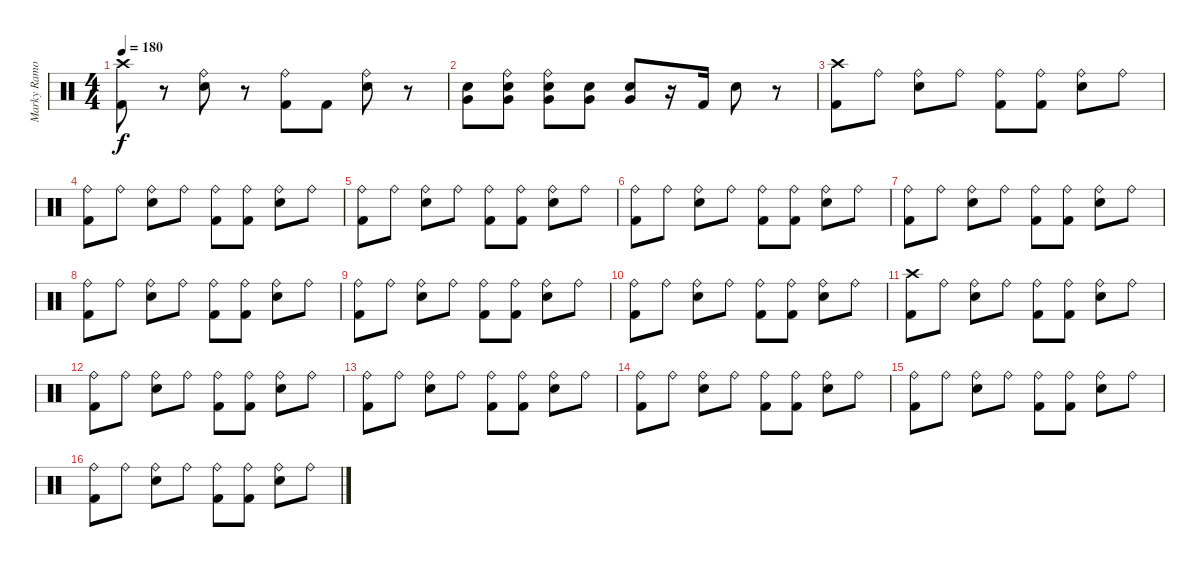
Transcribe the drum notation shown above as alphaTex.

\track ("Marky Ramone" "Marky Ramo") {instrument percussion}
\staff {score}
\articulation defaults
\ts (4 4)
\tempo 180
\clef neutral
\ks c
("Crash high (hit)" "Kick (hit) 2").8{dy f} r.8 ("Ride (bell)" "Electric Snare (hit)").8 r.8 ("Ride (bell)" "Kick (hit) 2").8 "Kick (hit) 2".8 ("Ride (bell)" "Electric Snare (hit)").8 r.8 |
("Snare (hit) 2" "Very Low Tom (hit)").8 ("Very Low Tom (hit)" "Snare (hit) 2" "Ride (bell)").8 ("Very Low Tom (hit)" "Ride (bell)" "Electric Snare (hit)").8 ("Very Low Tom (hit)" "Electric Snare (hit)").8 ("Very Low Tom (hit)" "Electric Snare (hit)").8 r.16 "Kick (hit) 2".16 "Electric Snare (hit)".8 r.8 |
("Kick (hit) 2" "Crash high (hit)").8 "Ride (bell)".8 ("Electric Snare (hit)" "Ride (bell)").8 "Ride (bell)".8 ("Kick (hit) 2" "Ride (bell)").8 ("Kick (hit) 2" "Ride (bell)").8 ("Electric Snare (hit)" "Ride (bell)").8 "Ride (bell)".8 |
("Ride (bell)" "Kick (hit) 2").8 "Ride (bell)".8 ("Electric Snare (hit)" "Ride (bell)").8 "Ride (bell)".8 ("Ride (bell)" "Kick (hit) 2").8 ("Ride (bell)" "Kick (hit) 2").8 ("Electric Snare (hit)" "Ride (bell)").8 "Ride (bell)".8 |
("Kick (hit) 2" "Ride (bell)").8 "Ride (bell)".8 ("Electric Snare (hit)" "Ride (bell)").8 "Ride (bell)".8 ("Kick (hit) 2" "Ride (bell)").8 ("Kick (hit) 2" "Ride (bell)").8 ("Electric Snare (hit)" "Ride (bell)").8 "Ride (bell)".8 |
("Ride (bell)" "Kick (hit) 2").8 "Ride (bell)".8 ("Electric Snare (hit)" "Ride (bell)").8 "Ride (bell)".8 ("Ride (bell)" "Kick (hit) 2").8 ("Ride (bell)" "Kick (hit) 2").8 ("Electric Snare (hit)" "Ride (bell)").8 "Ride (bell)".8 |
("Kick (hit) 2" "Ride (bell)").8 "Ride (bell)".8 ("Electric Snare (hit)" "Ride (bell)").8 "Ride (bell)".8 ("Kick (hit) 2" "Ride (bell)").8 ("Kick (hit) 2" "Ride (bell)").8 ("Electric Snare (hit)" "Ride (bell)").8 "Ride (bell)".8 |
("Ride (bell)" "Kick (hit) 2").8 "Ride (bell)".8 ("Electric Snare (hit)" "Ride (bell)").8 "Ride (bell)".8 ("Ride (bell)" "Kick (hit) 2").8 ("Ride (bell)" "Kick (hit) 2").8 ("Electric Snare (hit)" "Ride (bell)").8 "Ride (bell)".8 |
("Kick (hit) 2" "Ride (bell)").8 "Ride (bell)".8 ("Electric Snare (hit)" "Ride (bell)").8 "Ride (bell)".8 ("Kick (hit) 2" "Ride (bell)").8 ("Kick (hit) 2" "Ride (bell)").8 ("Electric Snare (hit)" "Ride (bell)").8 "Ride (bell)".8 |
("Ride (bell)" "Kick (hit) 2").8 "Ride (bell)".8 ("Electric Snare (hit)" "Ride (bell)").8 "Ride (bell)".8 ("Ride (bell)" "Kick (hit) 2").8 ("Ride (bell)" "Kick (hit) 2").8 ("Electric Snare (hit)" "Ride (bell)").8 "Ride (bell)".8 |
("Kick (hit) 2" "Crash high (hit)").8 "Ride (bell)".8 ("Electric Snare (hit)" "Ride (bell)").8 "Ride (bell)".8 ("Kick (hit) 2" "Ride (bell)").8 ("Kick (hit) 2" "Ride (bell)").8 ("Electric Snare (hit)" "Ride (bell)").8 "Ride (bell)".8 |
("Ride (bell)" "Kick (hit) 2").8 "Ride (bell)".8 ("Electric Snare (hit)" "Ride (bell)").8 "Ride (bell)".8 ("Ride (bell)" "Kick (hit) 2").8 ("Ride (bell)" "Kick (hit) 2").8 ("Electric Snare (hit)" "Ride (bell)").8 "Ride (bell)".8 |
("Kick (hit) 2" "Ride (bell)").8 "Ride (bell)".8 ("Electric Snare (hit)" "Ride (bell)").8 "Ride (bell)".8 ("Kick (hit) 2" "Ride (bell)").8 ("Kick (hit) 2" "Ride (bell)").8 ("Electric Snare (hit)" "Ride (bell)").8 "Ride (bell)".8 |
("Ride (bell)" "Kick (hit) 2").8 "Ride (bell)".8 ("Electric Snare (hit)" "Ride (bell)").8 "Ride (bell)".8 ("Ride (bell)" "Kick (hit) 2").8 ("Ride (bell)" "Kick (hit) 2").8 ("Electric Snare (hit)" "Ride (bell)").8 "Ride (bell)".8 |
("Kick (hit) 2" "Ride (bell)").8 "Ride (bell)".8 ("Electric Snare (hit)" "Ride (bell)").8 "Ride (bell)".8 ("Kick (hit) 2" "Ride (bell)").8 ("Kick (hit) 2" "Ride (bell)").8 ("Electric Snare (hit)" "Ride (bell)").8 "Ride (bell)".8 |
("Ride (bell)" "Kick (hit) 2").8 "Ride (bell)".8 ("Electric Snare (hit)" "Ride (bell)").8 "Ride (bell)".8 ("Ride (bell)" "Kick (hit) 2").8 ("Ride (bell)" "Kick (hit) 2").8 ("Electric Snare (hit)" "Ride (bell)").8 "Ride (bell)".8
